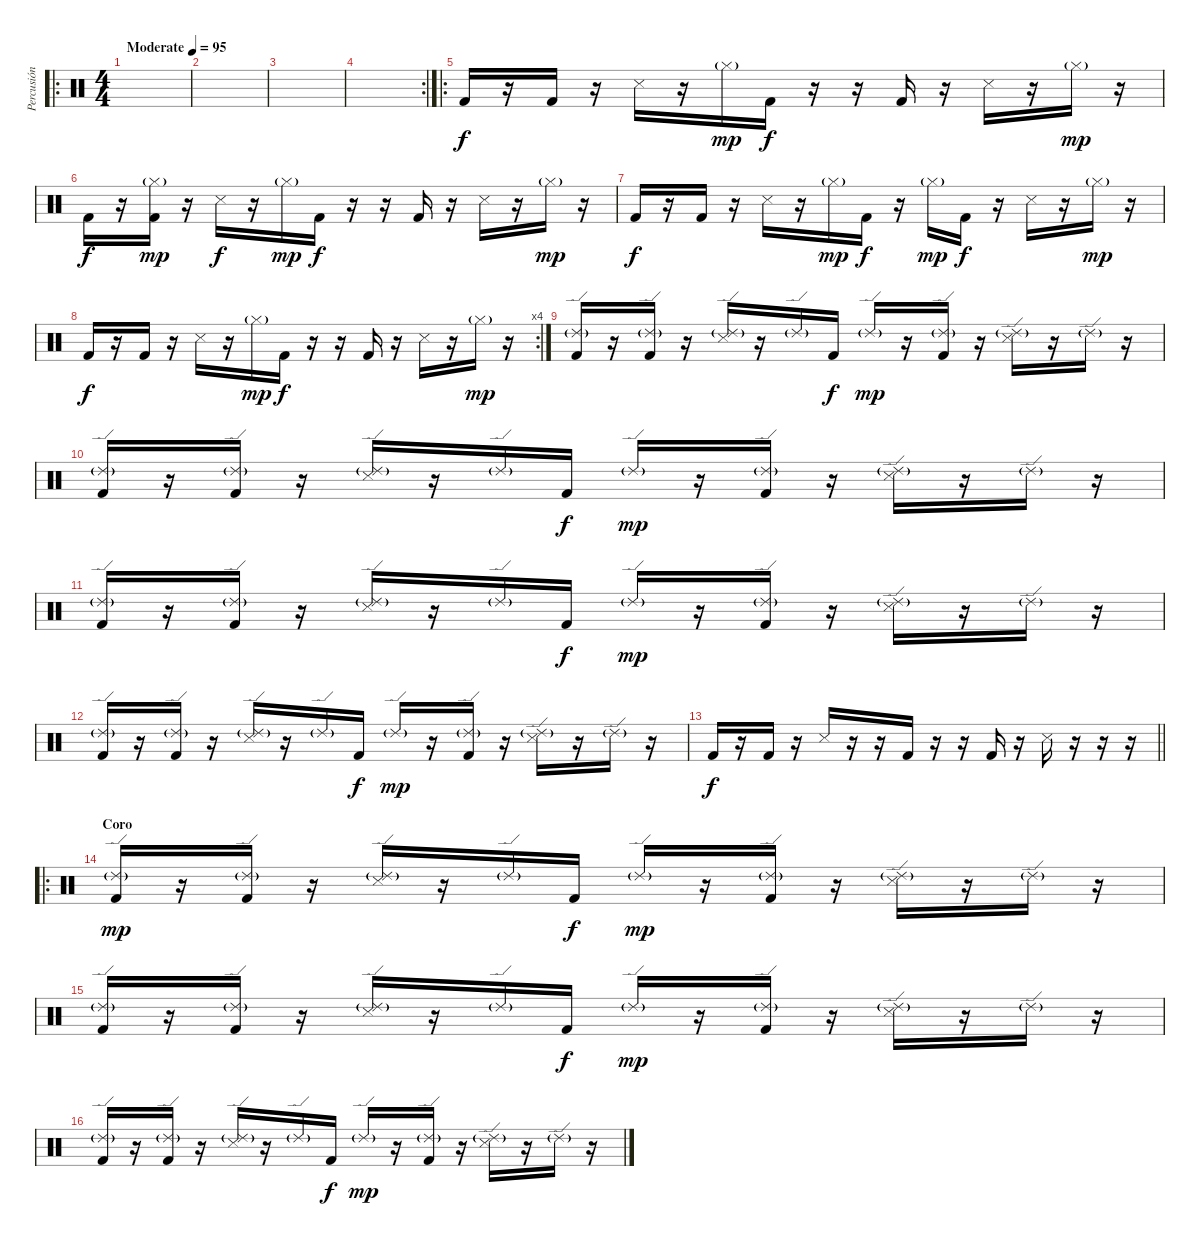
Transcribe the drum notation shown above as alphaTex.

\track ("Percusión" "Percusión") {instrument percussion}
\staff {score}
\articulation defaults
\ro
\ts (4 4)
\tempo (95 "Moderate")
\clef neutral
\ks c
|
|
|
\rc 2
|
\ro "Kick (hit) 2".16
r.16 "Kick (hit) 2".16 r.16 "Snare (side stick) 3".16 r.16 "Hi-Hat (closed)"{g}.16{dy mp} "Kick (hit) 2".16{dy f} r.16 r.16 "Kick (hit) 2".16 r.16 "Snare (side stick) 3".16 r.16 "Hi-Hat (closed)"{g}.16{dy mp} r.16 |
"Kick (hit) 2".16{dy f} r.16 ("Hi-Hat (closed)"{g} "Kick (hit) 2").16{dy mp} r.16 "Snare (side stick) 3".16{dy f} r.16 "Hi-Hat (closed)"{g}.16{dy mp} "Kick (hit) 2".16{dy f} r.16 r.16 "Kick (hit) 2".16 r.16 "Snare (side stick) 3".16 r.16 "Hi-Hat (closed)"{g}.16{dy mp} r.16 |
"Kick (hit) 2".16{dy f} r.16 "Kick (hit) 2".16 r.16 "Snare (side stick) 3".16 r.16 "Hi-Hat (closed)"{g}.16{dy mp} "Kick (hit) 2".16{dy f} r.16 "Hi-Hat (closed)"{g}.16{dy mp} "Kick (hit) 2".16{dy f} r.16 "Snare (side stick) 3".16 r.16 "Hi-Hat (closed)"{g}.16{dy mp} r.16 |
\rc 4 "Kick (hit) 2".16{dy f}
r.16 "Kick (hit) 2".16 r.16 "Snare (side stick) 3".16 r.16 "Hi-Hat (closed)"{g}.16{dy mp} "Kick (hit) 2".16{dy f} r.16 r.16 "Kick (hit) 2".16 r.16 "Snare (side stick) 3".16 r.16 "Hi-Hat (closed)"{g}.16{dy mp} r.16 |
("Ride (edge) 2"{g} "Kick (hit) 2").16 r.16 ("Ride (edge) 2"{g} "Kick (hit) 2").16 r.16 ("Ride (edge) 2"{g} "Snare (side stick) 3").16 r.16 "Ride (edge) 2"{g}.16 "Kick (hit) 2".16{dy f} "Ride (edge) 2"{g}.16{dy mp} r.16 ("Ride (edge) 2"{g} "Kick (hit) 2").16 r.16 ("Ride (edge) 2"{g} "Snare (side stick) 3").16 r.16 "Ride (edge) 2"{g}.16 r.16 |
("Ride (edge) 2"{g} "Kick (hit) 2").16 r.16 ("Ride (edge) 2"{g} "Kick (hit) 2").16 r.16 ("Ride (edge) 2"{g} "Snare (side stick) 3").16 r.16 "Ride (edge) 2"{g}.16 "Kick (hit) 2".16{dy f} "Ride (edge) 2"{g}.16{dy mp} r.16 ("Ride (edge) 2"{g} "Kick (hit) 2").16 r.16 ("Ride (edge) 2"{g} "Snare (side stick) 3").16 r.16 "Ride (edge) 2"{g}.16 r.16 |
("Ride (edge) 2"{g} "Kick (hit) 2").16 r.16 ("Ride (edge) 2"{g} "Kick (hit) 2").16 r.16 ("Ride (edge) 2"{g} "Snare (side stick) 3").16 r.16 "Ride (edge) 2"{g}.16 "Kick (hit) 2".16{dy f} "Ride (edge) 2"{g}.16{dy mp} r.16 ("Ride (edge) 2"{g} "Kick (hit) 2").16 r.16 ("Ride (edge) 2"{g} "Snare (side stick) 3").16 r.16 "Ride (edge) 2"{g}.16 r.16 |
("Ride (edge) 2"{g} "Kick (hit) 2").16 r.16 ("Ride (edge) 2"{g} "Kick (hit) 2").16 r.16 ("Ride (edge) 2"{g} "Snare (side stick) 3").16 r.16 "Ride (edge) 2"{g}.16 "Kick (hit) 2".16{dy f} "Ride (edge) 2"{g}.16{dy mp} r.16 ("Ride (edge) 2"{g} "Kick (hit) 2").16 r.16 ("Ride (edge) 2"{g} "Snare (side stick) 3").16 r.16 "Ride (edge) 2"{g}.16 r.16 |
\barLineRight lightlight "Kick (hit) 2".16{dy f}
r.16 "Kick (hit) 2".16 r.16 "Snare (side stick) 3".16 r.16 r.16 "Kick (hit) 2".16 r.16 r.16 "Kick (hit) 2".16 r.16 "Snare (side stick) 3".16 r.16 r.16 r.16 |
\ro
\section ("" "Coro")
("Ride (edge) 2"{g} "Kick (hit) 2").16{dy mp} r.16 ("Ride (edge) 2"{g} "Kick (hit) 2").16 r.16 ("Ride (edge) 2"{g} "Snare (side stick) 3").16 r.16 "Ride (edge) 2"{g}.16 "Kick (hit) 2".16{dy f} "Ride (edge) 2"{g}.16{dy mp} r.16 ("Ride (edge) 2"{g} "Kick (hit) 2").16 r.16 ("Ride (edge) 2"{g} "Snare (side stick) 3").16 r.16 "Ride (edge) 2"{g}.16 r.16 |
("Ride (edge) 2"{g} "Kick (hit) 2").16 r.16 ("Ride (edge) 2"{g} "Kick (hit) 2").16 r.16 ("Ride (edge) 2"{g} "Snare (side stick) 3").16 r.16 "Ride (edge) 2"{g}.16 "Kick (hit) 2".16{dy f} "Ride (edge) 2"{g}.16{dy mp} r.16 ("Ride (edge) 2"{g} "Kick (hit) 2").16 r.16 ("Ride (edge) 2"{g} "Snare (side stick) 3").16 r.16 "Ride (edge) 2"{g}.16 r.16 |
("Ride (edge) 2"{g} "Kick (hit) 2").16 r.16 ("Ride (edge) 2"{g} "Kick (hit) 2").16 r.16 ("Ride (edge) 2"{g} "Snare (side stick) 3").16 r.16 "Ride (edge) 2"{g}.16 "Kick (hit) 2".16{dy f} "Ride (edge) 2"{g}.16{dy mp} r.16 ("Ride (edge) 2"{g} "Kick (hit) 2").16 r.16 ("Ride (edge) 2"{g} "Snare (side stick) 3").16 r.16 "Ride (edge) 2"{g}.16 r.16
